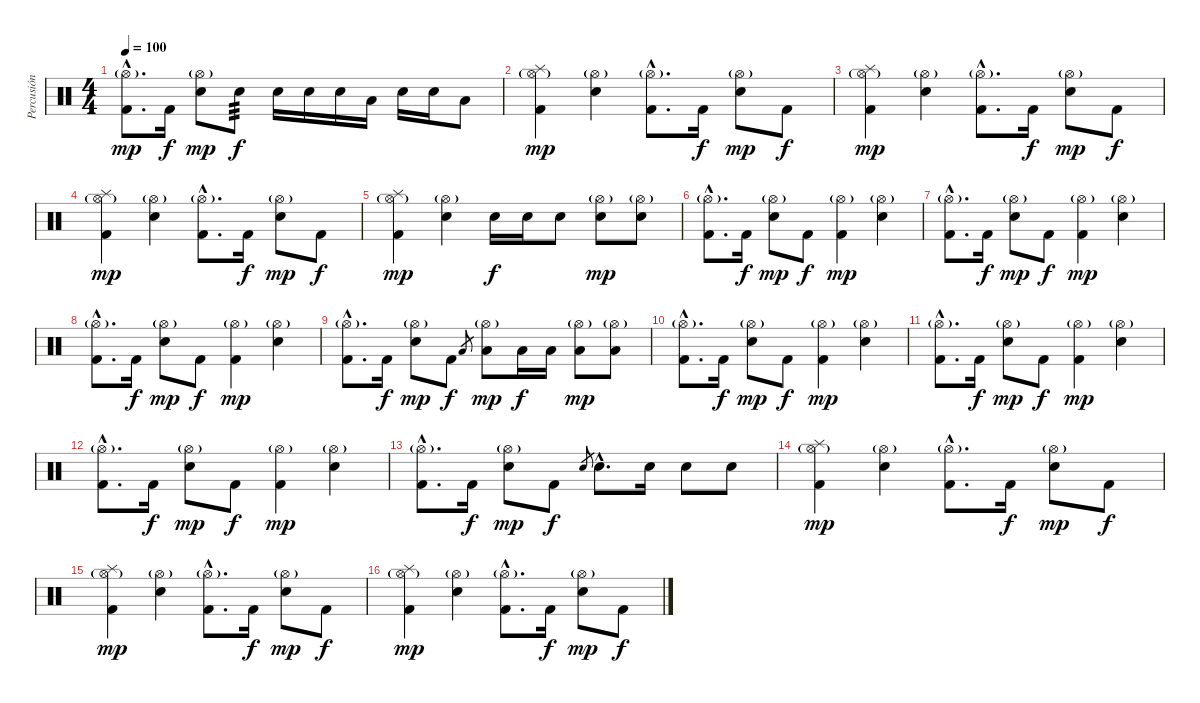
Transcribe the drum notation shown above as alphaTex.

\track ("Percusión" "Percusión") {instrument percussion}
\staff {score}
\articulation defaults
\ts (4 4)
\tempo 100
\clef neutral
\ks c
("Kick (hit) 2"{hac} "Hi-Hat (open)"{g hac}).8{d dy mp} "Kick (hit) 2".16{dy f} ("Electric Snare (hit)" "Hi-Hat (open)"{g}).8{dy mp} "Electric Snare (hit)".8{tp 3 dy f} "Electric Snare (hit)".16 "Electric Snare (hit)".16 "Electric Snare (hit)".16 "Low Tom (hit)".16 "Electric Snare (hit)".16 "Electric Snare (hit)".16 "Low Tom (hit)".8 |
("Kick (hit) 2" "Splash (hit)" "Hi-Hat (open)"{g}).4{dy mp} ("Electric Snare (hit)" "Hi-Hat (open)"{g}).4 ("Kick (hit) 2"{hac} "Hi-Hat (open)"{g hac}).8{d} "Kick (hit) 2".16{dy f} ("Electric Snare (hit)" "Hi-Hat (open)"{g}).8{dy mp} "Kick (hit) 2".8{dy f} |
("Kick (hit) 2" "Splash (hit)" "Hi-Hat (open)"{g}).4{dy mp} ("Electric Snare (hit)" "Hi-Hat (open)"{g}).4 ("Kick (hit) 2"{hac} "Hi-Hat (open)"{g hac}).8{d} "Kick (hit) 2".16{dy f} ("Electric Snare (hit)" "Hi-Hat (open)"{g}).8{dy mp} "Kick (hit) 2".8{dy f} |
("Kick (hit) 2" "Splash (hit)" "Hi-Hat (open)"{g}).4{dy mp} ("Electric Snare (hit)" "Hi-Hat (open)"{g}).4 ("Kick (hit) 2"{hac} "Hi-Hat (open)"{g hac}).8{d} "Kick (hit) 2".16{dy f} ("Electric Snare (hit)" "Hi-Hat (open)"{g}).8{dy mp} "Kick (hit) 2".8{dy f} |
("Kick (hit) 2" "Splash (hit)" "Hi-Hat (open)"{g}).4{dy mp} ("Electric Snare (hit)" "Hi-Hat (open)"{g}).4 "Electric Snare (hit)".16{dy f} "Electric Snare (hit)".16 "Electric Snare (hit)".8 ("Electric Snare (hit)" "Hi-Hat (open)"{g}).8{dy mp} ("Electric Snare (hit)" "Hi-Hat (open)"{g}).8 |
("Kick (hit) 2"{hac} "Hi-Hat (open)"{g hac}).8{d} "Kick (hit) 2".16{dy f} ("Electric Snare (hit)" "Hi-Hat (open)"{g}).8{dy mp} "Kick (hit) 2".8{dy f} ("Kick (hit) 2" "Hi-Hat (open)"{g}).4{dy mp} ("Electric Snare (hit)" "Hi-Hat (open)"{g}).4 |
("Kick (hit) 2"{hac} "Hi-Hat (open)"{g hac}).8{d} "Kick (hit) 2".16{dy f} ("Electric Snare (hit)" "Hi-Hat (open)"{g}).8{dy mp} "Kick (hit) 2".8{dy f} ("Kick (hit) 2" "Hi-Hat (open)"{g}).4{dy mp} ("Electric Snare (hit)" "Hi-Hat (open)"{g}).4 |
("Kick (hit) 2"{hac} "Hi-Hat (open)"{g hac}).8{d} "Kick (hit) 2".16{dy f} ("Electric Snare (hit)" "Hi-Hat (open)"{g}).8{dy mp} "Kick (hit) 2".8{dy f} ("Kick (hit) 2" "Hi-Hat (open)"{g}).4{dy mp} ("Electric Snare (hit)" "Hi-Hat (open)"{g}).4 |
("Kick (hit) 2"{hac} "Hi-Hat (open)"{g hac}).8{d} "Kick (hit) 2".16{dy f} ("Electric Snare (hit)" "Hi-Hat (open)"{g}).8{dy mp} "Kick (hit) 2".8{dy f} "Low Tom (hit)".8{gr} ("Low Tom (hit)" "Hi-Hat (open)"{g}).8{dy mp} "Low Tom (hit)".16{dy f} "Low Tom (hit)".16 ("Low Tom (hit)" "Hi-Hat (open)"{g}).8{dy mp} ("Low Tom (hit)" "Hi-Hat (open)"{g}).8 |
("Kick (hit) 2"{hac} "Hi-Hat (open)"{g hac}).8{d} "Kick (hit) 2".16{dy f} ("Electric Snare (hit)" "Hi-Hat (open)"{g}).8{dy mp} "Kick (hit) 2".8{dy f} ("Kick (hit) 2" "Hi-Hat (open)"{g}).4{dy mp} ("Electric Snare (hit)" "Hi-Hat (open)"{g}).4 |
("Kick (hit) 2"{hac} "Hi-Hat (open)"{g hac}).8{d} "Kick (hit) 2".16{dy f} ("Electric Snare (hit)" "Hi-Hat (open)"{g}).8{dy mp} "Kick (hit) 2".8{dy f} ("Kick (hit) 2" "Hi-Hat (open)"{g}).4{dy mp} ("Electric Snare (hit)" "Hi-Hat (open)"{g}).4 |
("Kick (hit) 2"{hac} "Hi-Hat (open)"{g hac}).8{d} "Kick (hit) 2".16{dy f} ("Electric Snare (hit)" "Hi-Hat (open)"{g}).8{dy mp} "Kick (hit) 2".8{dy f} ("Kick (hit) 2" "Hi-Hat (open)"{g}).4{dy mp} ("Electric Snare (hit)" "Hi-Hat (open)"{g}).4 |
("Kick (hit) 2"{hac} "Hi-Hat (open)"{g hac}).8{d} "Kick (hit) 2".16{dy f} ("Electric Snare (hit)" "Hi-Hat (open)"{g}).8{dy mp} "Kick (hit) 2".8{dy f} "Electric Snare (hit)".8{gr} "Electric Snare (hit)"{hac}.8{d} "Electric Snare (hit)".16 "Electric Snare (hit)".8 "Electric Snare (hit)".8 |
("Kick (hit) 2" "Splash (hit)" "Hi-Hat (open)"{g}).4{dy mp} ("Electric Snare (hit)" "Hi-Hat (open)"{g}).4 ("Kick (hit) 2"{hac} "Hi-Hat (open)"{g hac}).8{d} "Kick (hit) 2".16{dy f} ("Electric Snare (hit)" "Hi-Hat (open)"{g}).8{dy mp} "Kick (hit) 2".8{dy f} |
("Kick (hit) 2" "Splash (hit)" "Hi-Hat (open)"{g}).4{dy mp} ("Electric Snare (hit)" "Hi-Hat (open)"{g}).4 ("Kick (hit) 2"{hac} "Hi-Hat (open)"{g hac}).8{d} "Kick (hit) 2".16{dy f} ("Electric Snare (hit)" "Hi-Hat (open)"{g}).8{dy mp} "Kick (hit) 2".8{dy f} |
("Kick (hit) 2" "Splash (hit)" "Hi-Hat (open)"{g}).4{dy mp} ("Electric Snare (hit)" "Hi-Hat (open)"{g}).4 ("Kick (hit) 2"{hac} "Hi-Hat (open)"{g hac}).8{d} "Kick (hit) 2".16{dy f} ("Electric Snare (hit)" "Hi-Hat (open)"{g}).8{dy mp} "Kick (hit) 2".8{dy f}
